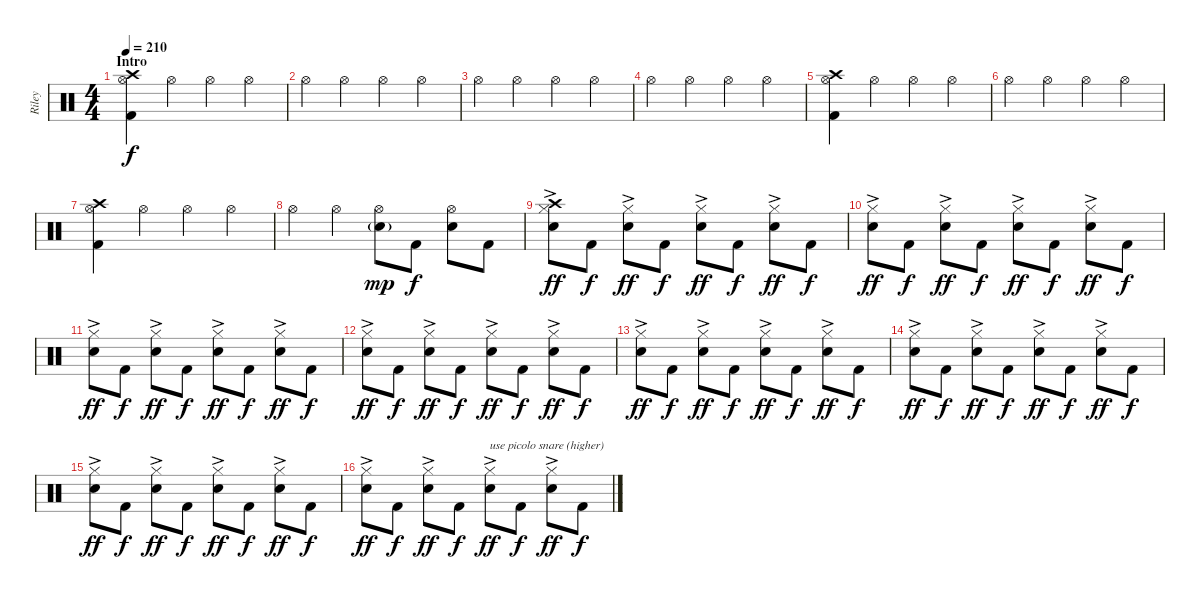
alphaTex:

\track ("Riley" "Riley") {instrument percussion}
\staff {score}
\articulation defaults
\ts (4 4)
\section ("" "Intro")
\tempo 210
\clef neutral
\ks c
("Crash high (hit)" "Hi-Hat (open)" "Kick (hit) 2").4{dy f} "Hi-Hat (open)".4 "Hi-Hat (open)".4 "Hi-Hat (open)".4 |
"Hi-Hat (open)".4 "Hi-Hat (open)".4 "Hi-Hat (open)".4 "Hi-Hat (open)".4 |
"Hi-Hat (open)".4 "Hi-Hat (open)".4 "Hi-Hat (open)".4 "Hi-Hat (open)".4 |
"Hi-Hat (open)".4 "Hi-Hat (open)".4 "Hi-Hat (open)".4 "Hi-Hat (open)".4 |
("Crash high (hit)" "Hi-Hat (open)" "Kick (hit) 2").4 "Hi-Hat (open)".4 "Hi-Hat (open)".4 "Hi-Hat (open)".4 |
"Hi-Hat (open)".4 "Hi-Hat (open)".4 "Hi-Hat (open)".4 "Hi-Hat (open)".4 |
("Crash high (hit)" "Hi-Hat (open)" "Kick (hit) 2").4 "Hi-Hat (open)".4 "Hi-Hat (open)".4 "Hi-Hat (open)".4 |
"Hi-Hat (open)".4 "Hi-Hat (open)".4 ("Hi-Hat (open)" "Electric Snare (hit)"{g}).8{dy mp} "Kick (hit) 2".8{dy f} ("Hi-Hat (open)" "Electric Snare (hit)").8 "Kick (hit) 2".8 |
("Crash high (hit)" "Hi-Hat (closed)" "Electric Snare (hit)"{ac}).8{dy ff} "Kick (hit) 2".8{dy f} ("Hi-Hat (closed)" "Electric Snare (hit)"{ac}).8{dy ff} "Kick (hit) 2".8{dy f} ("Hi-Hat (closed)" "Electric Snare (hit)"{ac}).8{dy ff} "Kick (hit) 2".8{dy f} ("Hi-Hat (closed)" "Electric Snare (hit)"{ac}).8{dy ff} "Kick (hit) 2".8{dy f} |
("Hi-Hat (closed)" "Electric Snare (hit)"{ac}).8{dy ff} "Kick (hit) 2".8{dy f} ("Hi-Hat (closed)" "Electric Snare (hit)"{ac}).8{dy ff} "Kick (hit) 2".8{dy f} ("Hi-Hat (closed)" "Electric Snare (hit)"{ac}).8{dy ff} "Kick (hit) 2".8{dy f} ("Hi-Hat (closed)" "Electric Snare (hit)"{ac}).8{dy ff} "Kick (hit) 2".8{dy f} |
("Hi-Hat (closed)" "Electric Snare (hit)"{ac}).8{dy ff} "Kick (hit) 2".8{dy f} ("Hi-Hat (closed)" "Electric Snare (hit)"{ac}).8{dy ff} "Kick (hit) 2".8{dy f} ("Hi-Hat (closed)" "Electric Snare (hit)"{ac}).8{dy ff} "Kick (hit) 2".8{dy f} ("Hi-Hat (closed)" "Electric Snare (hit)"{ac}).8{dy ff} "Kick (hit) 2".8{dy f} |
("Hi-Hat (closed)" "Electric Snare (hit)"{ac}).8{dy ff} "Kick (hit) 2".8{dy f} ("Hi-Hat (closed)" "Electric Snare (hit)"{ac}).8{dy ff} "Kick (hit) 2".8{dy f} ("Hi-Hat (closed)" "Electric Snare (hit)"{ac}).8{dy ff} "Kick (hit) 2".8{dy f} ("Hi-Hat (closed)" "Electric Snare (hit)"{ac}).8{dy ff} "Kick (hit) 2".8{dy f} |
("Hi-Hat (closed)" "Electric Snare (hit)"{ac}).8{dy ff} "Kick (hit) 2".8{dy f} ("Hi-Hat (closed)" "Electric Snare (hit)"{ac}).8{dy ff} "Kick (hit) 2".8{dy f} ("Hi-Hat (closed)" "Electric Snare (hit)"{ac}).8{dy ff} "Kick (hit) 2".8{dy f} ("Hi-Hat (closed)" "Electric Snare (hit)"{ac}).8{dy ff} "Kick (hit) 2".8{dy f} |
("Hi-Hat (closed)" "Electric Snare (hit)"{ac}).8{dy ff} "Kick (hit) 2".8{dy f} ("Hi-Hat (closed)" "Electric Snare (hit)"{ac}).8{dy ff} "Kick (hit) 2".8{dy f} ("Hi-Hat (closed)" "Electric Snare (hit)"{ac}).8{dy ff} "Kick (hit) 2".8{dy f} ("Hi-Hat (closed)" "Electric Snare (hit)"{ac}).8{dy ff} "Kick (hit) 2".8{dy f} |
("Hi-Hat (closed)" "Electric Snare (hit)"{ac}).8{dy ff} "Kick (hit) 2".8{dy f} ("Hi-Hat (closed)" "Electric Snare (hit)"{ac}).8{dy ff} "Kick (hit) 2".8{dy f} ("Hi-Hat (closed)" "Electric Snare (hit)"{ac}).8{dy ff} "Kick (hit) 2".8{dy f} ("Hi-Hat (closed)" "Electric Snare (hit)"{ac}).8{dy ff} "Kick (hit) 2".8{dy f} |
("Hi-Hat (closed)" "Electric Snare (hit)"{ac}).8{dy ff} "Kick (hit) 2".8{dy f} ("Hi-Hat (closed)" "Electric Snare (hit)"{ac}).8{dy ff} "Kick (hit) 2".8{dy f} ("Hi-Hat (closed)" "Electric Snare (hit)"{ac}).8{txt "use picolo snare (higher)" dy ff} "Kick (hit) 2".8{dy f} ("Hi-Hat (closed)" "Electric Snare (hit)"{ac}).8{dy ff} "Kick (hit) 2".8{dy f}
